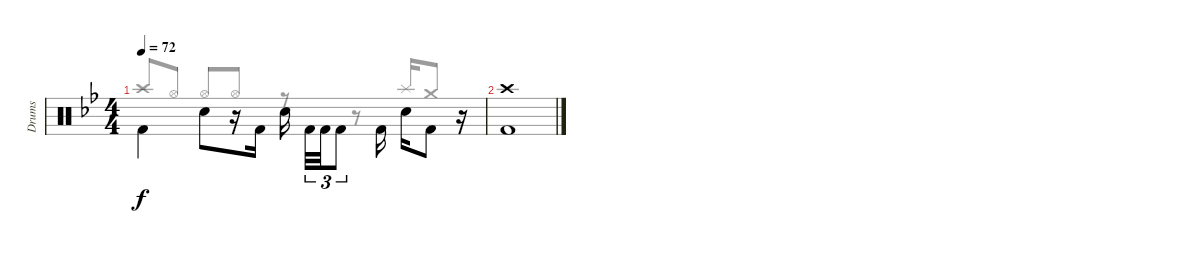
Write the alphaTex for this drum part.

\track ("Drums" "Drums") {instrument percussion}
\staff {score}
\articulation defaults
\voice
\ts (4 4)
\tempo 72
\clef neutral
\ks gminor "Kick (hit) 2".4{dy f beam Down} "Electric Snare (hit)".8{beam Down}
r.16 "Kick (hit) 2".16{beam Down} "Electric Snare (hit)".16{beam Down beam splitsecondary} "Kick (hit) 2".32{tu (3 2) beam Down} "Kick (hit) 2".32{tu (3 2) beam Down} "Kick (hit) 2".8{tu (3 2) beam Down} "Kick (hit) 2".16{beam Down} "Electric Snare (hit)".16{beam Down} "Kick (hit) 2".8{beam Down} r.16 |
("Crash high (hit)" "Kick (hit) 2").1 |
|
|
\voice
\clef neutral
\ottava regular
\simile none
\ks gminor "Crash high (hit)".8{dy f beam Up} "Hi-Hat (open)".8{beam Up} "Hi-Hat (open)".8{beam Up} "Hi-Hat (open)".8{beam Up}
r.8 r.8 "Splash (hit)".16{beam Up} "Crash medium (hit)".8{beam Up} r.16 |
|
|
|
